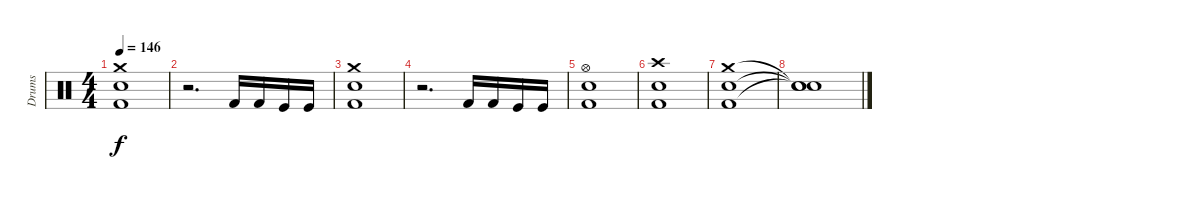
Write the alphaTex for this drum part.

\track ("Drums" "Drums") {instrument percussion}
\staff {score}
\articulation defaults
\ts (4 4)
\tempo 146
\clef neutral
\ks c
("Crash medium (hit)" "Snare (hit) 2" "Kick (hit) 2").1{dy f} |
r.2{d} "Kick (hit) 2".16 "Kick (hit) 2".16 "Kick (hit)".16 "Kick (hit)".16 |
("Crash medium (hit)" "Snare (hit) 2" "Kick (hit) 2").1 |
r.2{d} "Kick (hit) 2".16 "Kick (hit) 2".16 "Kick (hit)".16 "Kick (hit)".16 |
("Hi-Hat (open)" "Snare (hit) 2" "Kick (hit) 2").1 |
("Crash high (hit)" "Snare (hit) 2" "Kick (hit) 2").1 |
("Crash medium (hit)" "Snare (hit) 2" "Kick (hit) 2").1 |
("Snare (hit)"{t} "Snare (hit)"{t} "Snare (hit)"{t}).1
